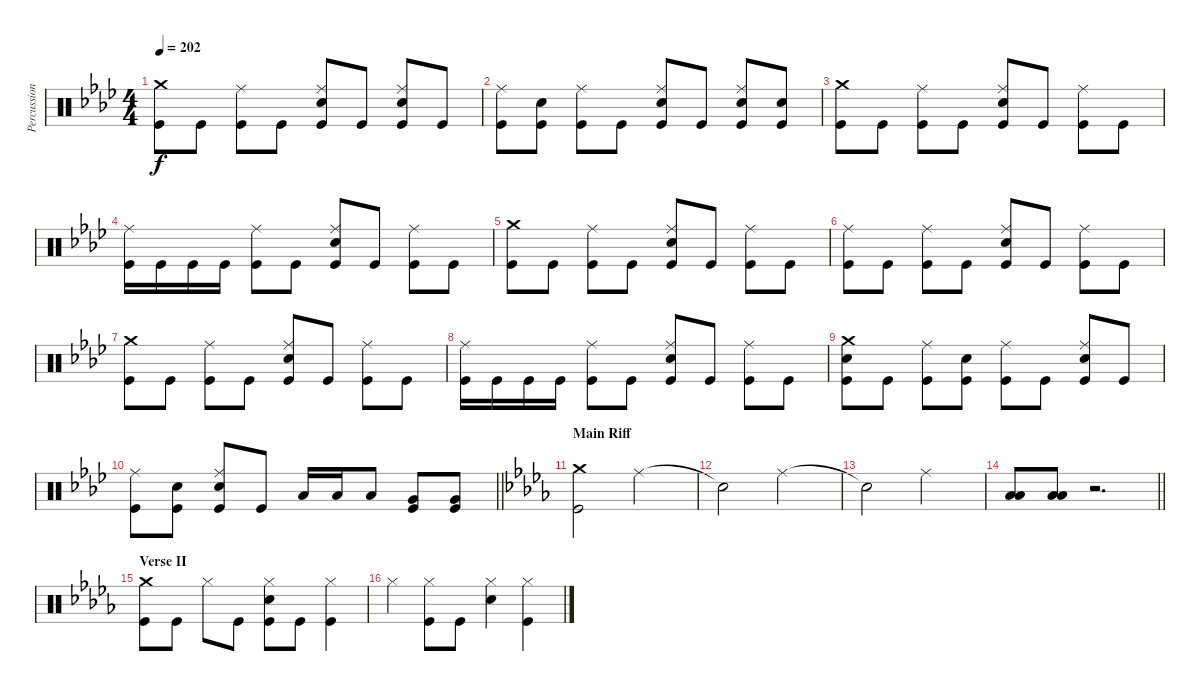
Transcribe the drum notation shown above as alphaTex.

\track ("Percussion" "Percussion") {instrument percussion}
\staff {score}
\articulation defaults
\ts (4 4)
\tempo 202
\clef neutral
\ks ab
("Crash medium (hit)" "Kick (hit)").8{dy f} "Kick (hit)".8 ("Ride (middle)" "Kick (hit)").8 "Kick (hit)".8 ("Ride (middle)" "Electric Snare (hit)" "Kick (hit)").8 "Kick (hit)".8 ("Ride (middle)" "Electric Snare (hit)" "Kick (hit)").8 "Kick (hit)".8 |
("Ride (middle)" "Kick (hit)").8 ("Electric Snare (hit)" "Kick (hit)").8 ("Ride (middle)" "Kick (hit)").8 "Kick (hit)".8 ("Ride (middle)" "Electric Snare (hit)" "Kick (hit)").8 "Kick (hit)".8 ("Ride (middle)" "Electric Snare (hit)" "Kick (hit)").8 ("Electric Snare (hit)" "Kick (hit)").8 |
("Crash medium (hit)" "Kick (hit)").8 "Kick (hit)".8 ("Ride (middle)" "Kick (hit)").8 "Kick (hit)".8 ("Ride (middle)" "Electric Snare (hit)" "Kick (hit)").8 "Kick (hit)".8 ("Ride (middle)" "Kick (hit)").8 "Kick (hit)".8 |
("Ride (middle)" "Kick (hit)").16 "Kick (hit)".16 "Kick (hit)".16 "Kick (hit)".16 ("Ride (middle)" "Kick (hit)").8 "Kick (hit)".8 ("Ride (middle)" "Electric Snare (hit)" "Kick (hit)").8 "Kick (hit)".8 ("Ride (middle)" "Kick (hit)").8 "Kick (hit)".8 |
("Crash medium (hit)" "Kick (hit)").8 "Kick (hit)".8 ("Ride (middle)" "Kick (hit)").8 "Kick (hit)".8 ("Ride (middle)" "Electric Snare (hit)" "Kick (hit)").8 "Kick (hit)".8 ("Ride (middle)" "Kick (hit)").8 "Kick (hit)".8 |
("Ride (middle)" "Kick (hit)").8 "Kick (hit)".8 ("Ride (middle)" "Kick (hit)").8 "Kick (hit)".8 ("Ride (middle)" "Electric Snare (hit)" "Kick (hit)").8 "Kick (hit)".8 ("Ride (middle)" "Kick (hit)").8 "Kick (hit)".8 |
("Crash medium (hit)" "Kick (hit)").8 "Kick (hit)".8 ("Ride (middle)" "Kick (hit)").8 "Kick (hit)".8 ("Ride (middle)" "Electric Snare (hit)" "Kick (hit)").8 "Kick (hit)".8 ("Ride (middle)" "Kick (hit)").8 "Kick (hit)".8 |
("Ride (middle)" "Kick (hit)").16 "Kick (hit)".16 "Kick (hit)".16 "Kick (hit)".16 ("Ride (middle)" "Kick (hit)").8 "Kick (hit)".8 ("Ride (middle)" "Electric Snare (hit)" "Kick (hit)").8 "Kick (hit)".8 ("Ride (middle)" "Kick (hit)").8 "Kick (hit)".8 |
("Crash medium (hit)" "Electric Snare (hit)" "Kick (hit)").8 "Kick (hit)".8 ("Ride (middle)" "Kick (hit)").8 ("Electric Snare (hit)" "Kick (hit)").8 ("Ride (middle)" "Kick (hit)").8 "Kick (hit)".8 ("Ride (middle)" "Electric Snare (hit)" "Kick (hit)").8 "Kick (hit)".8 |
\barLineRight lightlight
("Ride (middle)" "Kick (hit)").8 ("Electric Snare (hit)" "Kick (hit)").8 ("Ride (middle)" "Electric Snare (hit)" "Kick (hit)").8 "Kick (hit)".8 "Low Tom (hit)".16 "Low Tom (hit)".16 "Low Tom (hit)".8 ("Very Low Tom (hit)" "Kick (hit)").8 ("Very Low Tom (hit)" "Kick (hit)").8 |
\section ("" "Main Riff")
\ks db
("Crash medium (hit)" "Kick (hit)").2 "Ride (middle)".2 |
"Snare (hit)"{t}.2 "Ride (middle)".2 |
"Snare (hit)"{t}.2 "Ride (middle)".2 |
\barLineRight lightlight
("Low Floor Tom (hit)" "Low Floor Tom (hit)").8 ("Low Floor Tom (hit)" "Low Floor Tom (hit)").8 r.2{d} |
\section ("" "Verse II")
("Crash medium (hit)" "Kick (hit)").8 "Kick (hit)".8 "Hi-Hat (closed)".8 "Kick (hit)".8 ("Hi-Hat (closed)" "Electric Snare (hit)" "Kick (hit)").8 "Kick (hit)".8 ("Hi-Hat (closed)" "Kick (hit)").4 |
"Hi-Hat (closed)".4 ("Hi-Hat (closed)" "Kick (hit)").8 "Kick (hit)".8 ("Hi-Hat (closed)" "Electric Snare (hit)").4 ("Hi-Hat (closed)" "Kick (hit)").4
